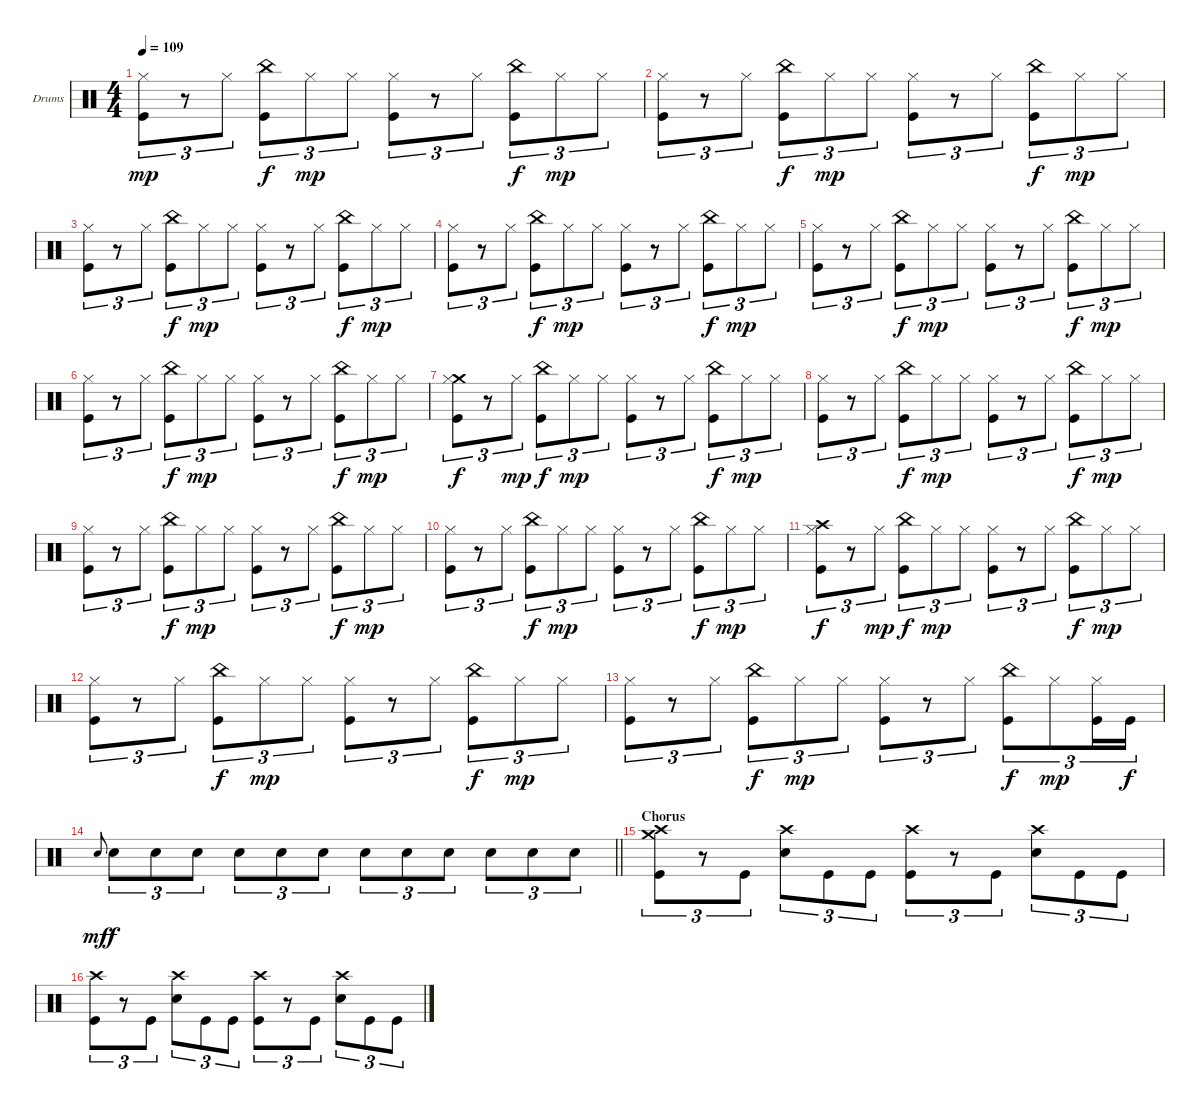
\bracketExtendMode groupsimilarinstruments
\firstSystemTrackNameOrientation horizontal
\otherSystemsTrackNameOrientation horizontal
\track ("Drumkit" "Drums") {instrument percussion}
\staff {score}
\articulation defaults
\ts (4 4)
\tempo 109
\clef neutral
\ks c
("Hi-Hat (closed)" "Kick (hit)").8{tu (3 2) dy mp} r.8{tu (3 2)} "Hi-Hat (closed)".8{tu (3 2)} ("China (hit)" "Kick (hit)").8{tu (3 2) dy f} "Hi-Hat (closed)".8{tu (3 2) dy mp} "Hi-Hat (closed)".8{tu (3 2)} ("Hi-Hat (closed)" "Kick (hit)").8{tu (3 2)} r.8{tu (3 2)} "Hi-Hat (closed)".8{tu (3 2)} ("China (hit)" "Kick (hit)").8{tu (3 2) dy f} "Hi-Hat (closed)".8{tu (3 2) dy mp} "Hi-Hat (closed)".8{tu (3 2)} |
("Hi-Hat (closed)" "Kick (hit)").8{tu (3 2)} r.8{tu (3 2)} "Hi-Hat (closed)".8{tu (3 2)} ("China (hit)" "Kick (hit)").8{tu (3 2) dy f} "Hi-Hat (closed)".8{tu (3 2) dy mp} "Hi-Hat (closed)".8{tu (3 2)} ("Hi-Hat (closed)" "Kick (hit)").8{tu (3 2)} r.8{tu (3 2)} "Hi-Hat (closed)".8{tu (3 2)} ("China (hit)" "Kick (hit)").8{tu (3 2) dy f} "Hi-Hat (closed)".8{tu (3 2) dy mp} "Hi-Hat (closed)".8{tu (3 2)} |
("Hi-Hat (closed)" "Kick (hit)").8{tu (3 2)} r.8{tu (3 2)} "Hi-Hat (closed)".8{tu (3 2)} ("China (hit)" "Kick (hit)").8{tu (3 2) dy f} "Hi-Hat (closed)".8{tu (3 2) dy mp} "Hi-Hat (closed)".8{tu (3 2)} ("Hi-Hat (closed)" "Kick (hit)").8{tu (3 2)} r.8{tu (3 2)} "Hi-Hat (closed)".8{tu (3 2)} ("China (hit)" "Kick (hit)").8{tu (3 2) dy f} "Hi-Hat (closed)".8{tu (3 2) dy mp} "Hi-Hat (closed)".8{tu (3 2)} |
("Hi-Hat (closed)" "Kick (hit)").8{tu (3 2)} r.8{tu (3 2)} "Hi-Hat (closed)".8{tu (3 2)} ("China (hit)" "Kick (hit)").8{tu (3 2) dy f} "Hi-Hat (closed)".8{tu (3 2) dy mp} "Hi-Hat (closed)".8{tu (3 2)} ("Hi-Hat (closed)" "Kick (hit)").8{tu (3 2)} r.8{tu (3 2)} "Hi-Hat (closed)".8{tu (3 2)} ("China (hit)" "Kick (hit)").8{tu (3 2) dy f} "Hi-Hat (closed)".8{tu (3 2) dy mp} "Hi-Hat (closed)".8{tu (3 2)} |
("Hi-Hat (closed)" "Kick (hit)").8{tu (3 2)} r.8{tu (3 2)} "Hi-Hat (closed)".8{tu (3 2)} ("China (hit)" "Kick (hit)").8{tu (3 2) dy f} "Hi-Hat (closed)".8{tu (3 2) dy mp} "Hi-Hat (closed)".8{tu (3 2)} ("Hi-Hat (closed)" "Kick (hit)").8{tu (3 2)} r.8{tu (3 2)} "Hi-Hat (closed)".8{tu (3 2)} ("China (hit)" "Kick (hit)").8{tu (3 2) dy f} "Hi-Hat (closed)".8{tu (3 2) dy mp} "Hi-Hat (closed)".8{tu (3 2)} |
("Hi-Hat (closed)" "Kick (hit)").8{tu (3 2)} r.8{tu (3 2)} "Hi-Hat (closed)".8{tu (3 2)} ("China (hit)" "Kick (hit)").8{tu (3 2) dy f} "Hi-Hat (closed)".8{tu (3 2) dy mp} "Hi-Hat (closed)".8{tu (3 2)} ("Hi-Hat (closed)" "Kick (hit)").8{tu (3 2)} r.8{tu (3 2)} "Hi-Hat (closed)".8{tu (3 2)} ("China (hit)" "Kick (hit)").8{tu (3 2) dy f} "Hi-Hat (closed)".8{tu (3 2) dy mp} "Hi-Hat (closed)".8{tu (3 2)} |
("Crash medium (hit)" "Hi-Hat (closed)" "Kick (hit)").8{tu (3 2) dy f} r.8{tu (3 2)} "Hi-Hat (closed)".8{tu (3 2) dy mp} ("China (hit)" "Kick (hit)").8{tu (3 2) dy f} "Hi-Hat (closed)".8{tu (3 2) dy mp} "Hi-Hat (closed)".8{tu (3 2)} ("Hi-Hat (closed)" "Kick (hit)").8{tu (3 2)} r.8{tu (3 2)} "Hi-Hat (closed)".8{tu (3 2)} ("China (hit)" "Kick (hit)").8{tu (3 2) dy f} "Hi-Hat (closed)".8{tu (3 2) dy mp} "Hi-Hat (closed)".8{tu (3 2)} |
("Hi-Hat (closed)" "Kick (hit)").8{tu (3 2)} r.8{tu (3 2)} "Hi-Hat (closed)".8{tu (3 2)} ("China (hit)" "Kick (hit)").8{tu (3 2) dy f} "Hi-Hat (closed)".8{tu (3 2) dy mp} "Hi-Hat (closed)".8{tu (3 2)} ("Hi-Hat (closed)" "Kick (hit)").8{tu (3 2)} r.8{tu (3 2)} "Hi-Hat (closed)".8{tu (3 2)} ("China (hit)" "Kick (hit)").8{tu (3 2) dy f} "Hi-Hat (closed)".8{tu (3 2) dy mp} "Hi-Hat (closed)".8{tu (3 2)} |
("Hi-Hat (closed)" "Kick (hit)").8{tu (3 2)} r.8{tu (3 2)} "Hi-Hat (closed)".8{tu (3 2)} ("China (hit)" "Kick (hit)").8{tu (3 2) dy f} "Hi-Hat (closed)".8{tu (3 2) dy mp} "Hi-Hat (closed)".8{tu (3 2)} ("Hi-Hat (closed)" "Kick (hit)").8{tu (3 2)} r.8{tu (3 2)} "Hi-Hat (closed)".8{tu (3 2)} ("China (hit)" "Kick (hit)").8{tu (3 2) dy f} "Hi-Hat (closed)".8{tu (3 2) dy mp} "Hi-Hat (closed)".8{tu (3 2)} |
("Hi-Hat (closed)" "Kick (hit)").8{tu (3 2)} r.8{tu (3 2)} "Hi-Hat (closed)".8{tu (3 2)} ("China (hit)" "Kick (hit)").8{tu (3 2) dy f} "Hi-Hat (closed)".8{tu (3 2) dy mp} "Hi-Hat (closed)".8{tu (3 2)} ("Hi-Hat (closed)" "Kick (hit)").8{tu (3 2)} r.8{tu (3 2)} "Hi-Hat (closed)".8{tu (3 2)} ("China (hit)" "Kick (hit)").8{tu (3 2) dy f} "Hi-Hat (closed)".8{tu (3 2) dy mp} "Hi-Hat (closed)".8{tu (3 2)} |
("Crash high (hit)" "Hi-Hat (closed)" "Kick (hit)").8{tu (3 2) dy f} r.8{tu (3 2)} "Hi-Hat (closed)".8{tu (3 2) dy mp} ("China (hit)" "Kick (hit)").8{tu (3 2) dy f} "Hi-Hat (closed)".8{tu (3 2) dy mp} "Hi-Hat (closed)".8{tu (3 2)} ("Hi-Hat (closed)" "Kick (hit)").8{tu (3 2)} r.8{tu (3 2)} "Hi-Hat (closed)".8{tu (3 2)} ("China (hit)" "Kick (hit)").8{tu (3 2) dy f} "Hi-Hat (closed)".8{tu (3 2) dy mp} "Hi-Hat (closed)".8{tu (3 2)} |
("Hi-Hat (closed)" "Kick (hit)").8{tu (3 2)} r.8{tu (3 2)} "Hi-Hat (closed)".8{tu (3 2)} ("China (hit)" "Kick (hit)").8{tu (3 2) dy f} "Hi-Hat (closed)".8{tu (3 2) dy mp} "Hi-Hat (closed)".8{tu (3 2)} ("Hi-Hat (closed)" "Kick (hit)").8{tu (3 2)} r.8{tu (3 2)} "Hi-Hat (closed)".8{tu (3 2)} ("China (hit)" "Kick (hit)").8{tu (3 2) dy f} "Hi-Hat (closed)".8{tu (3 2) dy mp} "Hi-Hat (closed)".8{tu (3 2)} |
("Hi-Hat (closed)" "Kick (hit)").8{tu (3 2)} r.8{tu (3 2)} "Hi-Hat (closed)".8{tu (3 2)} ("China (hit)" "Kick (hit)").8{tu (3 2) dy f} "Hi-Hat (closed)".8{tu (3 2) dy mp} "Hi-Hat (closed)".8{tu (3 2)} ("Hi-Hat (closed)" "Kick (hit)").8{tu (3 2)} r.8{tu (3 2)} "Hi-Hat (closed)".8{tu (3 2)} ("China (hit)" "Kick (hit)").8{tu (3 2) dy f} "Hi-Hat (closed)".8{tu (3 2) dy mp} ("Hi-Hat (closed)" "Kick (hit)").16{tu (3 2)} "Kick (hit)".16{tu (3 2) dy f} |
\barLineRight lightlight "Snare (hit) 2".8{gr onbeat dy mf} "Snare (hit) 2".8{tu (3 2) dy f} "Snare (hit) 2".8{tu (3 2)} "Snare (hit) 2".8{tu (3 2)} "Snare (hit) 2".8{tu (3 2)} "Snare (hit) 2".8{tu (3 2)} "Snare (hit) 2".8{tu (3 2)} "Snare (hit) 2".8{tu (3 2)} "Snare (hit) 2".8{tu (3 2)} "Snare (hit) 2".8{tu (3 2)} "Snare (hit) 2".8{tu (3 2)} "Snare (hit) 2".8{tu (3 2)} "Snare (hit) 2".8{tu (3 2)}
|
\section ("" "Chorus")
("Crash high (hit)" "Crash medium (hit)" "Kick (hit)").8{tu (3 2)} r.8{tu (3 2)} "Kick (hit)".8{tu (3 2)} ("Crash high (hit)" "Snare (hit) 2").8{tu (3 2)} "Kick (hit)".8{tu (3 2)} "Kick (hit)".8{tu (3 2)} ("Crash high (hit)" "Kick (hit)").8{tu (3 2)} r.8{tu (3 2)} "Kick (hit)".8{tu (3 2)} ("Crash high (hit)" "Snare (hit) 2").8{tu (3 2)} "Kick (hit)".8{tu (3 2)} "Kick (hit)".8{tu (3 2)} |
("Crash high (hit)" "Kick (hit)").8{tu (3 2)} r.8{tu (3 2)} "Kick (hit)".8{tu (3 2)} ("Crash high (hit)" "Snare (hit) 2").8{tu (3 2)} "Kick (hit)".8{tu (3 2)} "Kick (hit)".8{tu (3 2)} ("Crash high (hit)" "Kick (hit)").8{tu (3 2)} r.8{tu (3 2)} "Kick (hit)".8{tu (3 2)} ("Crash high (hit)" "Snare (hit) 2").8{tu (3 2)} "Kick (hit)".8{tu (3 2)} "Kick (hit)".8{tu (3 2)}
